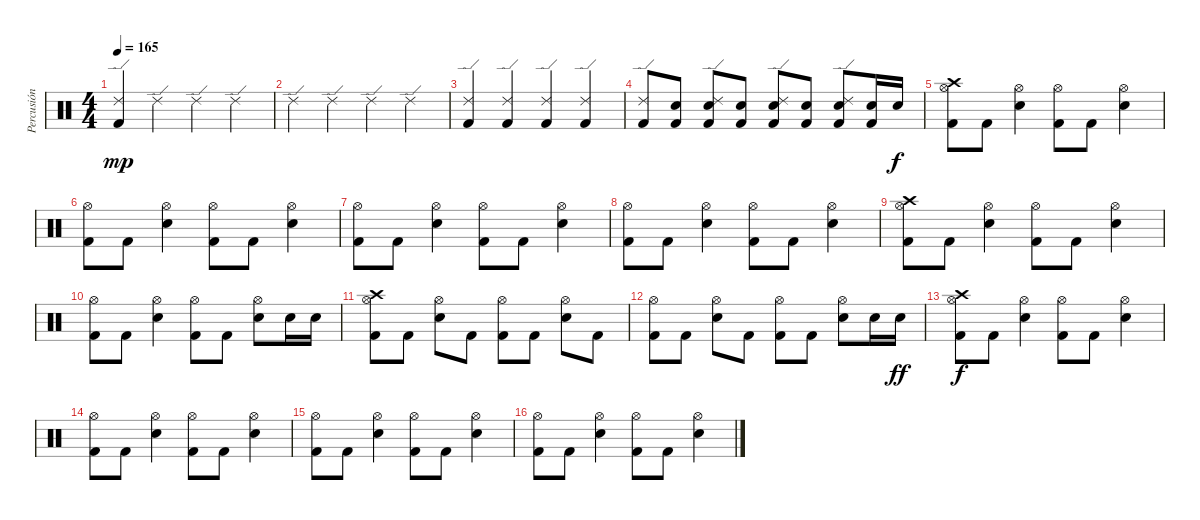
\track ("Percusión" "Percusión") {instrument percussion}
\staff {score}
\articulation defaults
\ts (4 4)
\tempo 165
\clef neutral
\ks c
("Ride (edge) 2" "Kick (hit) 2").4{dy mp} "Ride (edge) 2".4 "Ride (edge) 2".4 "Ride (edge) 2".4 |
"Ride (edge) 2".4 "Ride (edge) 2".4 "Ride (edge) 2".4 "Ride (edge) 2".4 |
("Ride (edge) 2" "Kick (hit) 2").4 ("Ride (edge) 2" "Kick (hit) 2").4 ("Ride (edge) 2" "Kick (hit) 2").4 ("Ride (edge) 2" "Kick (hit) 2").4 |
("Ride (edge) 2" "Kick (hit) 2").8 ("Snare (hit) 2" "Kick (hit) 2").8 ("Ride (edge) 2" "Snare (hit) 2" "Kick (hit) 2").8 ("Snare (hit) 2" "Kick (hit) 2").8 ("Ride (edge) 2" "Snare (hit) 2" "Kick (hit) 2").8 ("Snare (hit) 2" "Kick (hit) 2").8 ("Ride (edge) 2" "Snare (hit) 2" "Kick (hit) 2").8 ("Snare (hit) 2" "Kick (hit) 2").16 "Snare (hit) 2".16{dy f} |
("Crash high (hit)" "Hi-Hat (open)" "Kick (hit) 2").8 "Kick (hit) 2".8 ("Hi-Hat (open)" "Snare (hit) 2").4 ("Hi-Hat (open)" "Kick (hit) 2").8 "Kick (hit) 2".8 ("Hi-Hat (open)" "Snare (hit) 2").4 |
("Hi-Hat (open)" "Kick (hit) 2").8 "Kick (hit) 2".8 ("Hi-Hat (open)" "Snare (hit) 2").4 ("Hi-Hat (open)" "Kick (hit) 2").8 "Kick (hit) 2".8 ("Hi-Hat (open)" "Snare (hit) 2").4 |
("Hi-Hat (open)" "Kick (hit) 2").8 "Kick (hit) 2".8 ("Hi-Hat (open)" "Snare (hit) 2").4 ("Hi-Hat (open)" "Kick (hit) 2").8 "Kick (hit) 2".8 ("Hi-Hat (open)" "Snare (hit) 2").4 |
("Hi-Hat (open)" "Kick (hit) 2").8 "Kick (hit) 2".8 ("Hi-Hat (open)" "Snare (hit) 2").4 ("Hi-Hat (open)" "Kick (hit) 2").8 "Kick (hit) 2".8 ("Hi-Hat (open)" "Snare (hit) 2").4 |
("Crash high (hit)" "Hi-Hat (open)" "Kick (hit) 2").8 "Kick (hit) 2".8 ("Hi-Hat (open)" "Snare (hit) 2").4 ("Hi-Hat (open)" "Kick (hit) 2").8 "Kick (hit) 2".8 ("Hi-Hat (open)" "Snare (hit) 2").4 |
("Hi-Hat (open)" "Kick (hit) 2").8 "Kick (hit) 2".8 ("Hi-Hat (open)" "Snare (hit) 2").4 ("Hi-Hat (open)" "Kick (hit) 2").8 "Kick (hit) 2".8 ("Hi-Hat (open)" "Snare (hit) 2").8 "Snare (hit) 2".16 "Snare (hit) 2".16 |
("Crash high (hit)" "Hi-Hat (open)" "Kick (hit) 2").8 "Kick (hit) 2".8 ("Hi-Hat (open)" "Snare (hit) 2").8 "Kick (hit) 2".8 ("Hi-Hat (open)" "Kick (hit) 2").8 "Kick (hit) 2".8 ("Hi-Hat (open)" "Snare (hit) 2").8 "Kick (hit) 2".8 |
("Hi-Hat (open)" "Kick (hit) 2").8 "Kick (hit) 2".8 ("Hi-Hat (open)" "Snare (hit) 2").8 "Kick (hit) 2".8 ("Hi-Hat (open)" "Kick (hit) 2").8 "Kick (hit) 2".8 ("Hi-Hat (open)" "Snare (hit) 2").8 "Snare (hit) 2".16 "Snare (hit) 2".16{dy ff} |
("Crash high (hit)" "Hi-Hat (open)" "Kick (hit) 2").8{dy f} "Kick (hit) 2".8 ("Hi-Hat (open)" "Snare (hit) 2").4 ("Hi-Hat (open)" "Kick (hit) 2").8 "Kick (hit) 2".8 ("Hi-Hat (open)" "Snare (hit) 2").4 |
("Hi-Hat (open)" "Kick (hit) 2").8 "Kick (hit) 2".8 ("Hi-Hat (open)" "Snare (hit) 2").4 ("Hi-Hat (open)" "Kick (hit) 2").8 "Kick (hit) 2".8 ("Hi-Hat (open)" "Snare (hit) 2").4 |
("Hi-Hat (open)" "Kick (hit) 2").8 "Kick (hit) 2".8 ("Hi-Hat (open)" "Snare (hit) 2").4 ("Hi-Hat (open)" "Kick (hit) 2").8 "Kick (hit) 2".8 ("Hi-Hat (open)" "Snare (hit) 2").4 |
("Hi-Hat (open)" "Kick (hit) 2").8 "Kick (hit) 2".8 ("Hi-Hat (open)" "Snare (hit) 2").4 ("Hi-Hat (open)" "Kick (hit) 2").8 "Kick (hit) 2".8 ("Hi-Hat (open)" "Snare (hit) 2").4
